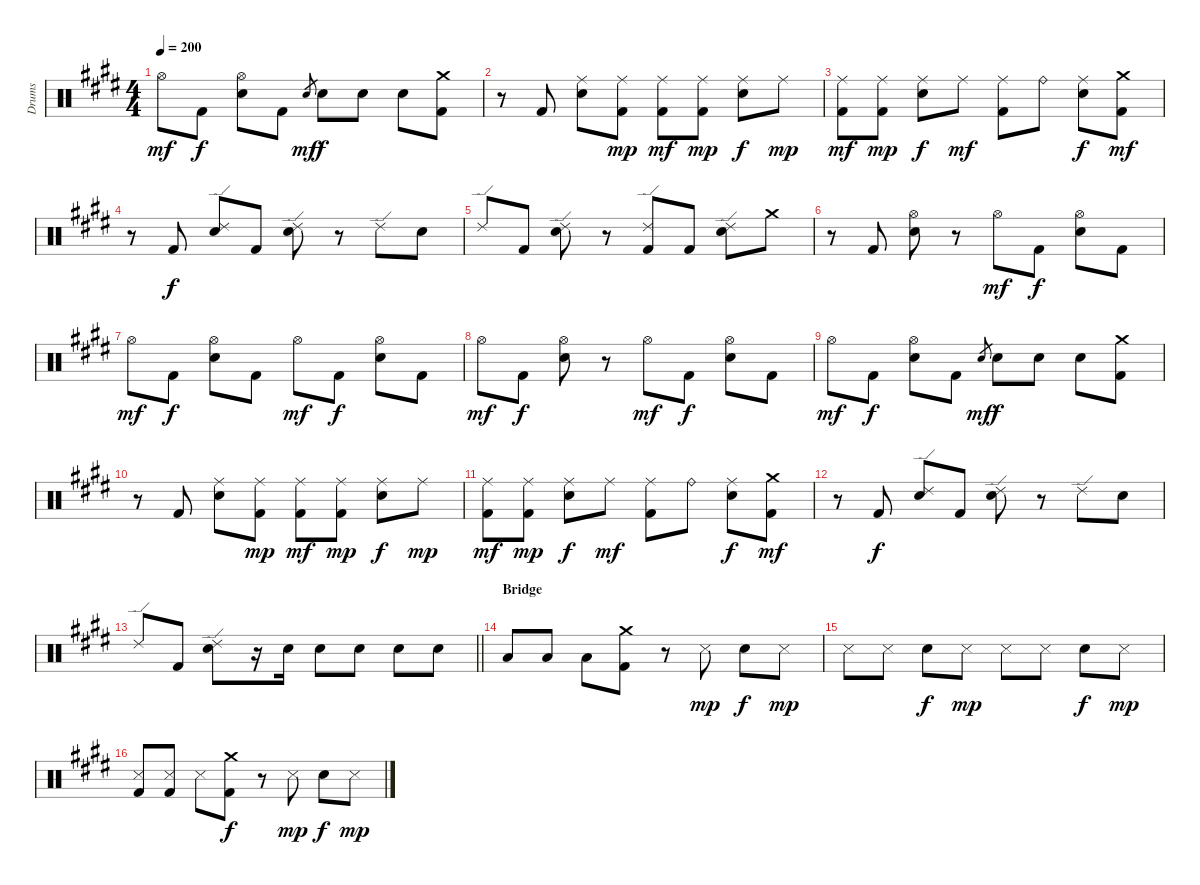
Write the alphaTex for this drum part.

\track ("Drums" "Drums") {instrument percussion}
\staff {score}
\articulation defaults
\ts (4 4)
\tempo 200
\clef neutral
\ks c#minor "Hi-Hat (open)".8{dy mf} "Kick (hit) 2".8{dy f}
("Hi-Hat (open)" "Electric Snare (hit)").8 "Kick (hit) 2".8 "Electric Snare (hit)".8{gr dy mf} "Electric Snare (hit)".8{dy f} "Electric Snare (hit)".8 "Electric Snare (hit)".8 ("Crash medium (hit)" "Kick (hit) 2").8 |
r.8 "Kick (hit) 2".8 ("Ride (middle)" "Electric Snare (hit)").8 ("Ride (middle)" "Kick (hit) 2").8{dy mp} ("Ride (middle)" "Kick (hit) 2").8{dy mf} ("Ride (middle)" "Kick (hit) 2").8{dy mp} ("Ride (middle)" "Electric Snare (hit)").8{dy f} "Ride (middle)".8{dy mp} |
("Ride (middle)" "Kick (hit) 2").8{dy mf} ("Ride (middle)" "Kick (hit) 2").8{dy mp} ("Ride (middle)" "Electric Snare (hit)").8{dy f} "Ride (middle)".8{dy mf} ("Ride (middle)" "Kick (hit) 2").8 "Ride (bell)".8 ("Ride (middle)" "Electric Snare (hit)").8{dy f} ("Crash medium (hit)" "Kick (hit) 2").8{dy mf} |
r.8 "Kick (hit) 2".8{dy f} ("Ride (edge) 2" "Electric Snare (hit)").8 "Kick (hit) 2".8 ("Ride (edge) 2" "Electric Snare (hit)").8 r.8 "Ride (edge) 2".8 "Electric Snare (hit)".8 |
"Ride (edge) 2".8 "Kick (hit) 2".8 ("Ride (edge) 2" "Electric Snare (hit)").8 r.8 ("Ride (edge) 2" "Kick (hit) 2").8 "Kick (hit) 2".8 ("Ride (edge) 2" "Electric Snare (hit)").8 "Crash medium (hit)".8 |
r.8 "Kick (hit) 2".8 ("Hi-Hat (open)" "Electric Snare (hit)").8 r.8 "Hi-Hat (open)".8{dy mf} "Kick (hit) 2".8{dy f} ("Hi-Hat (open)" "Electric Snare (hit)").8 "Kick (hit) 2".8 |
"Hi-Hat (open)".8{dy mf} "Kick (hit) 2".8{dy f} ("Hi-Hat (open)" "Electric Snare (hit)").8 "Kick (hit) 2".8 "Hi-Hat (open)".8{dy mf} "Kick (hit) 2".8{dy f} ("Hi-Hat (open)" "Electric Snare (hit)").8 "Kick (hit) 2".8 |
"Hi-Hat (open)".8{dy mf} "Kick (hit) 2".8{dy f} ("Hi-Hat (open)" "Electric Snare (hit)").8 r.8 "Hi-Hat (open)".8{dy mf} "Kick (hit) 2".8{dy f} ("Hi-Hat (open)" "Electric Snare (hit)").8 "Kick (hit) 2".8 |
"Hi-Hat (open)".8{dy mf} "Kick (hit) 2".8{dy f} ("Hi-Hat (open)" "Electric Snare (hit)").8 "Kick (hit) 2".8 "Electric Snare (hit)".8{gr dy mf} "Electric Snare (hit)".8{dy f} "Electric Snare (hit)".8 "Electric Snare (hit)".8 ("Crash medium (hit)" "Kick (hit) 2").8 |
r.8 "Kick (hit) 2".8 ("Ride (middle)" "Electric Snare (hit)").8 ("Ride (middle)" "Kick (hit) 2").8{dy mp} ("Ride (middle)" "Kick (hit) 2").8{dy mf} ("Ride (middle)" "Kick (hit) 2").8{dy mp} ("Ride (middle)" "Electric Snare (hit)").8{dy f} "Ride (middle)".8{dy mp} |
("Ride (middle)" "Kick (hit) 2").8{dy mf} ("Ride (middle)" "Kick (hit) 2").8{dy mp} ("Ride (middle)" "Electric Snare (hit)").8{dy f} "Ride (middle)".8{dy mf} ("Ride (middle)" "Kick (hit) 2").8 "Ride (bell)".8 ("Ride (middle)" "Electric Snare (hit)").8{dy f} ("Crash medium (hit)" "Kick (hit) 2").8{dy mf} |
r.8 "Kick (hit) 2".8{dy f} ("Ride (edge) 2" "Electric Snare (hit)").8 "Kick (hit) 2".8 ("Ride (edge) 2" "Electric Snare (hit)").8 r.8 "Ride (edge) 2".8 "Electric Snare (hit)".8 |
\barLineRight lightlight "Ride (edge) 2".8 "Kick (hit) 2".8
("Ride (edge) 2" "Electric Snare (hit)").8 r.16 "Electric Snare (hit)".16 "Electric Snare (hit)".8 "Electric Snare (hit)".8 "Electric Snare (hit)".8 "Electric Snare (hit)".8 |
\section ("" "Bridge")
"Low Tom (hit)".8 "Low Tom (hit)".8 "Low Tom (hit)".8 ("Crash medium (hit)" "Kick (hit) 2").8 r.8 "Snare (side stick) 3".8{dy mp} "Electric Snare (hit)".8{dy f} "Snare (side stick) 3".8{dy mp} |
"Snare (side stick) 3".8 "Snare (side stick) 3".8 "Electric Snare (hit)".8{dy f} "Snare (side stick) 3".8{dy mp} "Snare (side stick) 3".8 "Snare (side stick) 3".8 "Electric Snare (hit)".8{dy f} "Snare (side stick) 3".8{dy mp} |
("Snare (side stick) 3" "Kick (hit) 2").8 ("Snare (side stick) 3" "Kick (hit) 2").8 "Snare (side stick) 3".8 ("Crash medium (hit)" "Kick (hit) 2").8{dy f} r.8 "Snare (side stick) 3".8{dy mp} "Electric Snare (hit)".8{dy f} "Snare (side stick) 3".8{dy mp}
